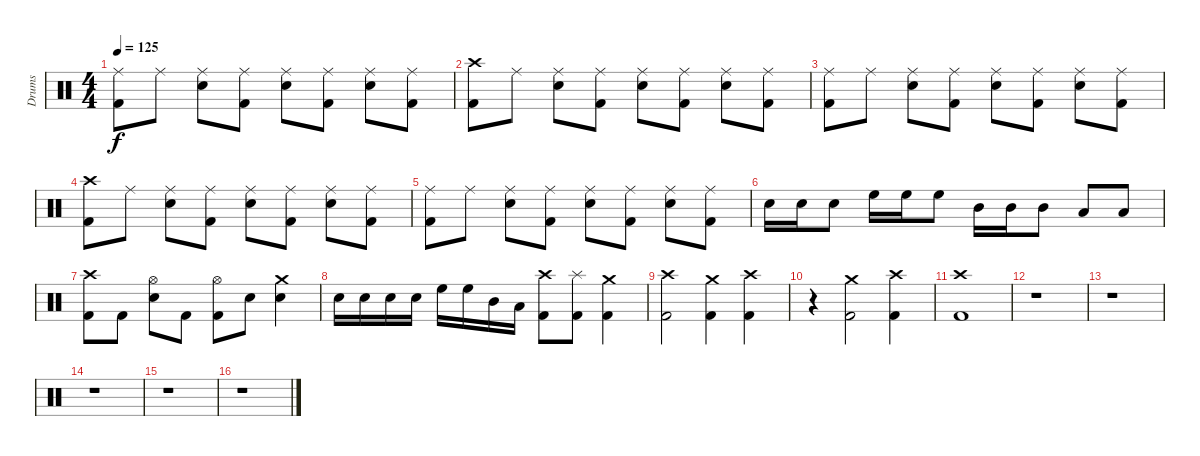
\track ("Drums" "Drums") {instrument percussion}
\staff {score}
\articulation defaults
\ts (4 4)
\tempo 125
\clef neutral
\ks c
("Ride (middle)" "Kick (hit) 2").8{dy f} "Ride (middle)".8 ("Ride (middle)" "Snare (hit) 2").8 ("Ride (middle)" "Kick (hit) 2").8 ("Ride (middle)" "Snare (hit) 2").8 ("Ride (middle)" "Kick (hit) 2").8 ("Ride (middle)" "Snare (hit) 2").8 ("Ride (middle)" "Kick (hit) 2").8 |
("Crash high (hit)" "Kick (hit) 2").8 "Ride (middle)".8 ("Ride (middle)" "Snare (hit) 2").8 ("Ride (middle)" "Kick (hit) 2").8 ("Ride (middle)" "Snare (hit) 2").8 ("Ride (middle)" "Kick (hit) 2").8 ("Ride (middle)" "Snare (hit) 2").8 ("Ride (middle)" "Kick (hit) 2").8 |
("Ride (middle)" "Kick (hit) 2").8 "Ride (middle)".8 ("Ride (middle)" "Snare (hit) 2").8 ("Ride (middle)" "Kick (hit) 2").8 ("Ride (middle)" "Snare (hit) 2").8 ("Ride (middle)" "Kick (hit) 2").8 ("Ride (middle)" "Snare (hit) 2").8 ("Ride (middle)" "Kick (hit) 2").8 |
("Crash high (hit)" "Kick (hit) 2").8 "Ride (middle)".8 ("Ride (middle)" "Snare (hit) 2").8 ("Ride (middle)" "Kick (hit) 2").8 ("Ride (middle)" "Snare (hit) 2").8 ("Ride (middle)" "Kick (hit) 2").8 ("Ride (middle)" "Snare (hit) 2").8 ("Ride (middle)" "Kick (hit) 2").8 |
("Ride (middle)" "Kick (hit) 2").8 "Ride (middle)".8 ("Ride (middle)" "Snare (hit) 2").8 ("Ride (middle)" "Kick (hit) 2").8 ("Ride (middle)" "Snare (hit) 2").8 ("Ride (middle)" "Kick (hit) 2").8 ("Ride (middle)" "Snare (hit) 2").8 ("Ride (middle)" "Kick (hit) 2").8 |
"Snare (hit) 2".16 "Snare (hit) 2".16 "Snare (hit) 2".8 "High Floor Tom (hit)".16 "High Floor Tom (hit)".16 "High Floor Tom (hit)".8 "Mid Tom (hit)".16 "Mid Tom (hit)".16 "Mid Tom (hit)".8 "Low Tom (hit)".8 "Low Floor Tom (hit)".8 |
("Crash high (hit)" "Kick (hit) 2").8 "Kick (hit) 2".8 ("Hi-Hat (open)" "Snare (hit) 2").8 "Kick (hit) 2".8 ("Hi-Hat (open)" "Kick (hit) 2").8 "Snare (hit) 2".8 ("Crash medium (hit)" "Snare (hit) 2").4 |
"Snare (hit) 2".16 "Snare (hit) 2".16 "Snare (hit) 2".16 "Snare (hit) 2".16 "High Floor Tom (hit)".16 "High Floor Tom (hit)".16 "Mid Tom (hit)".16 "Low Tom (hit)".16 ("Crash high (hit)" "Kick (hit) 2").8 ("Splash (hit)" "Kick (hit) 2").8 ("Crash medium (hit)" "Kick (hit) 2").4 |
("Crash high (hit)" "Kick (hit) 2").2 ("Crash medium (hit)" "Kick (hit) 2").4 ("Crash high (hit)" "Kick (hit) 2").4 |
r.4 ("Crash medium (hit)" "Kick (hit) 2").2 ("Crash high (hit)" "Kick (hit) 2").4 |
("Crash high (hit)" "Kick (hit) 2").1 |
r.1 |
r.1 |
r.1 |
r.1 |
r.1
